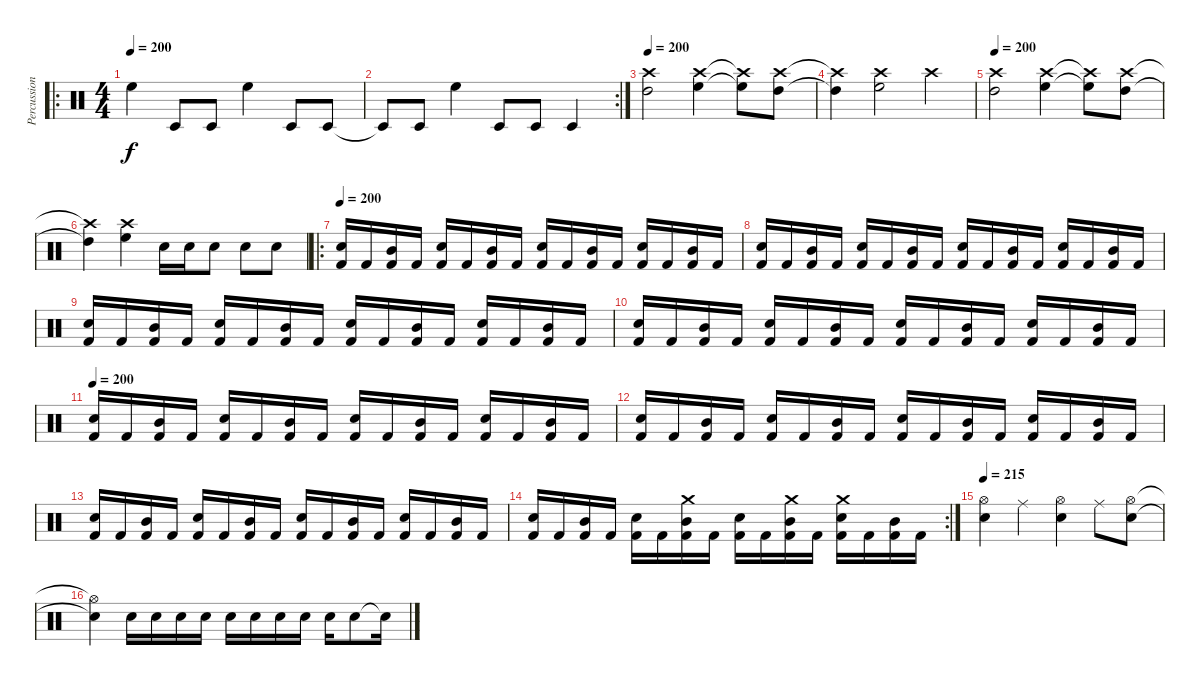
\track ("Percussion" "Percussion") {instrument percussion}
\staff {score}
\articulation defaults
\ro
\ts (4 4)
\tempo 200
\clef neutral
\ks c "High Floor Tom (hit)".4{dy f volume 10} "Timbale low (hit)".8 "Timbale low (hit)".8 "High Floor Tom (hit)".4 "Timbale low (hit)".8 "Timbale low (hit)".8
|
\rc 2 "Timbale low (hit)"{t}.8 "Timbale low (hit)".8 "High Floor Tom (hit)".4 "Timbale low (hit)".8 "Timbale low (hit)".8 "Timbale low (hit)".4
|
\tempo 200
("Crash high (hit)" "High Tom (hit)").2{volume 13} ("Crash high (hit)" "High Floor Tom (hit)").4 ("Crash high (hit)"{t} "High Floor Tom (hit)"{t}).8 ("Crash high (hit)" "High Tom (hit)").8 |
("Crash high (hit)"{t} "High Tom (hit)"{t}).4 ("Crash high (hit)" "High Floor Tom (hit)").2 "Crash high (hit)".4 |
\tempo 200
("Crash high (hit)" "High Tom (hit)").2 ("Crash high (hit)" "High Floor Tom (hit)").4 ("Crash high (hit)"{t} "High Floor Tom (hit)"{t}).8 ("Crash high (hit)" "High Tom (hit)").8 |
("Crash high (hit)"{t} "High Tom (hit)"{t}).4 ("Crash high (hit)" "High Floor Tom (hit)").4 "Electric Snare (hit)".16 "Electric Snare (hit)".16 "Electric Snare (hit)".8 "Snare (hit) 2".8 "Snare (hit) 2".8 |
\ro
\tempo 200
("Electric Snare (hit)" "Kick (hit) 2").16 "Kick (hit) 2".16 ("Mid Tom (hit)" "Kick (hit) 2").16 "Kick (hit) 2".16 ("Electric Snare (hit)" "Kick (hit) 2").16 "Kick (hit) 2".16 ("Mid Tom (hit)" "Kick (hit) 2").16 "Kick (hit) 2".16 ("Electric Snare (hit)" "Kick (hit) 2").16 "Kick (hit) 2".16 ("Mid Tom (hit)" "Kick (hit) 2").16 "Kick (hit) 2".16 ("Electric Snare (hit)" "Kick (hit) 2").16 "Kick (hit) 2".16 ("Mid Tom (hit)" "Kick (hit) 2").16 "Kick (hit) 2".16 |
("Electric Snare (hit)" "Kick (hit) 2").16 "Kick (hit) 2".16 ("Mid Tom (hit)" "Kick (hit) 2").16 "Kick (hit) 2".16 ("Electric Snare (hit)" "Kick (hit) 2").16 "Kick (hit) 2".16 ("Mid Tom (hit)" "Kick (hit) 2").16 "Kick (hit) 2".16 ("Electric Snare (hit)" "Kick (hit) 2").16 "Kick (hit) 2".16 ("Mid Tom (hit)" "Kick (hit) 2").16 "Kick (hit) 2".16 ("Electric Snare (hit)" "Kick (hit) 2").16 "Kick (hit) 2".16 ("Mid Tom (hit)" "Kick (hit) 2").16 "Kick (hit) 2".16 |
("Electric Snare (hit)" "Kick (hit) 2").16 "Kick (hit) 2".16 ("Mid Tom (hit)" "Kick (hit) 2").16 "Kick (hit) 2".16 ("Electric Snare (hit)" "Kick (hit) 2").16 "Kick (hit) 2".16 ("Mid Tom (hit)" "Kick (hit) 2").16 "Kick (hit) 2".16 ("Electric Snare (hit)" "Kick (hit) 2").16 "Kick (hit) 2".16 ("Mid Tom (hit)" "Kick (hit) 2").16 "Kick (hit) 2".16 ("Electric Snare (hit)" "Kick (hit) 2").16 "Kick (hit) 2".16 ("Mid Tom (hit)" "Kick (hit) 2").16 "Kick (hit) 2".16 |
("Electric Snare (hit)" "Kick (hit) 2").16 "Kick (hit) 2".16 ("Mid Tom (hit)" "Kick (hit) 2").16 "Kick (hit) 2".16 ("Electric Snare (hit)" "Kick (hit) 2").16 "Kick (hit) 2".16 ("Mid Tom (hit)" "Kick (hit) 2").16 "Kick (hit) 2".16 ("Electric Snare (hit)" "Kick (hit) 2").16 "Kick (hit) 2".16 ("Mid Tom (hit)" "Kick (hit) 2").16 "Kick (hit) 2".16 ("Electric Snare (hit)" "Kick (hit) 2").16 "Kick (hit) 2".16 ("Mid Tom (hit)" "Kick (hit) 2").16 "Kick (hit) 2".16 |
\tempo 200
("Electric Snare (hit)" "Kick (hit) 2").16 "Kick (hit) 2".16 ("Mid Tom (hit)" "Kick (hit) 2").16 "Kick (hit) 2".16 ("Electric Snare (hit)" "Kick (hit) 2").16 "Kick (hit) 2".16 ("Mid Tom (hit)" "Kick (hit) 2").16 "Kick (hit) 2".16 ("Electric Snare (hit)" "Kick (hit) 2").16 "Kick (hit) 2".16 ("Mid Tom (hit)" "Kick (hit) 2").16 "Kick (hit) 2".16 ("Electric Snare (hit)" "Kick (hit) 2").16 "Kick (hit) 2".16 ("Mid Tom (hit)" "Kick (hit) 2").16 "Kick (hit) 2".16 |
("Electric Snare (hit)" "Kick (hit) 2").16 "Kick (hit) 2".16 ("Mid Tom (hit)" "Kick (hit) 2").16 "Kick (hit) 2".16 ("Electric Snare (hit)" "Kick (hit) 2").16 "Kick (hit) 2".16 ("Mid Tom (hit)" "Kick (hit) 2").16 "Kick (hit) 2".16 ("Electric Snare (hit)" "Kick (hit) 2").16 "Kick (hit) 2".16 ("Mid Tom (hit)" "Kick (hit) 2").16 "Kick (hit) 2".16 ("Electric Snare (hit)" "Kick (hit) 2").16 "Kick (hit) 2".16 ("Mid Tom (hit)" "Kick (hit) 2").16 "Kick (hit) 2".16 |
("Electric Snare (hit)" "Kick (hit) 2").16 "Kick (hit) 2".16 ("Mid Tom (hit)" "Kick (hit) 2").16 "Kick (hit) 2".16 ("Electric Snare (hit)" "Kick (hit) 2").16 "Kick (hit) 2".16 ("Mid Tom (hit)" "Kick (hit) 2").16 "Kick (hit) 2".16 ("Electric Snare (hit)" "Kick (hit) 2").16 "Kick (hit) 2".16 ("Mid Tom (hit)" "Kick (hit) 2").16 "Kick (hit) 2".16 ("Electric Snare (hit)" "Kick (hit) 2").16 "Kick (hit) 2".16 ("Mid Tom (hit)" "Kick (hit) 2").16 "Kick (hit) 2".16 |
\rc 2
("Electric Snare (hit)" "Kick (hit) 2").16 "Kick (hit) 2".16 ("Mid Tom (hit)" "Kick (hit) 2").16 "Kick (hit) 2".16 ("Electric Snare (hit)" "Kick (hit) 2").16 "Kick (hit) 2".16 ("Mid Tom (hit)" "Crash medium (hit)" "Kick (hit) 2").16 "Kick (hit) 2".16 ("Electric Snare (hit)" "Kick (hit) 2").16 "Kick (hit) 2".16 ("Mid Tom (hit)" "Crash medium (hit)" "Kick (hit) 2").16 "Kick (hit) 2".16 ("Electric Snare (hit)" "Crash medium (hit)" "Kick (hit) 2").16 "Kick (hit) 2".16 ("Mid Tom (hit)" "Kick (hit) 2").16 "Kick (hit) 2".16 |
\tempo 215
("Hi-Hat (open)" "Snare (hit) 2").4 "Ride (middle)".4 ("Hi-Hat (open)" "Snare (hit) 2").4 "Ride (middle)".8 ("Hi-Hat (open)" "Snare (hit) 2").8 |
("Hi-Hat (open)"{t} "Snare (hit) 2"{t}).4 "Snare (hit) 2".16 "Snare (hit) 2".16 "Snare (hit) 2".16 "Snare (hit) 2".16 "Electric Snare (hit)".16 "Electric Snare (hit)".16 "Electric Snare (hit)".16 "Snare (hit) 2".16 "Snare (hit) 2".16 "Snare (hit) 2".8 "Snare (hit) 2"{t}.16
